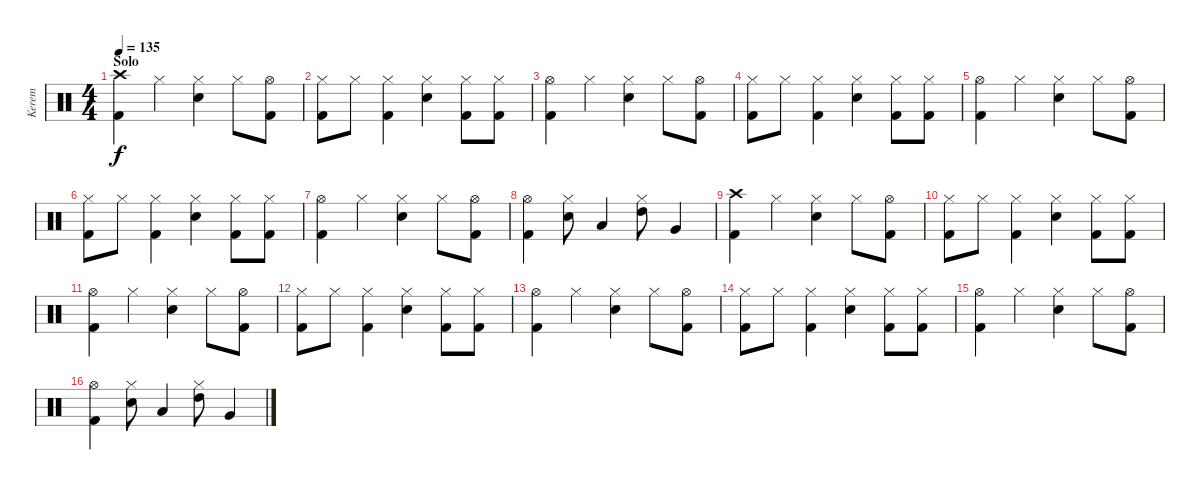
\track ("Kerem" "Kerem") {instrument percussion}
\staff {score}
\articulation defaults
\ts (4 4)
\section ("" "Solo")
\tempo 135
\clef neutral
\ks c
("Crash high (hit)" "Kick (hit) 2").4{dy f} "Hi-Hat (closed)".4 ("Electric Snare (hit)" "Hi-Hat (closed)").4 "Hi-Hat (closed)".8 ("Hi-Hat (open)" "Kick (hit) 2").8 |
("Hi-Hat (closed)" "Kick (hit) 2").8 "Hi-Hat (closed)".8 ("Hi-Hat (closed)" "Kick (hit) 2").4 ("Electric Snare (hit)" "Hi-Hat (closed)").4 ("Hi-Hat (closed)" "Kick (hit) 2").8 ("Hi-Hat (closed)" "Kick (hit) 2").8 |
("Hi-Hat (open)" "Kick (hit) 2").4 "Hi-Hat (closed)".4 ("Electric Snare (hit)" "Hi-Hat (closed)").4 "Hi-Hat (closed)".8 ("Hi-Hat (open)" "Kick (hit) 2").8 |
("Hi-Hat (closed)" "Kick (hit) 2").8 "Hi-Hat (closed)".8 ("Hi-Hat (closed)" "Kick (hit) 2").4 ("Electric Snare (hit)" "Hi-Hat (closed)").4 ("Hi-Hat (closed)" "Kick (hit) 2").8 ("Hi-Hat (closed)" "Kick (hit) 2").8 |
("Hi-Hat (open)" "Kick (hit) 2").4 "Hi-Hat (closed)".4 ("Electric Snare (hit)" "Hi-Hat (closed)").4 "Hi-Hat (closed)".8 ("Hi-Hat (open)" "Kick (hit) 2").8 |
("Hi-Hat (closed)" "Kick (hit) 2").8 "Hi-Hat (closed)".8 ("Hi-Hat (closed)" "Kick (hit) 2").4 ("Electric Snare (hit)" "Hi-Hat (closed)").4 ("Hi-Hat (closed)" "Kick (hit) 2").8 ("Hi-Hat (closed)" "Kick (hit) 2").8 |
("Hi-Hat (open)" "Kick (hit) 2").4 "Hi-Hat (closed)".4 ("Electric Snare (hit)" "Hi-Hat (closed)").4 "Hi-Hat (closed)".8 ("Hi-Hat (open)" "Kick (hit) 2").8 |
("Kick (hit) 2" "Hi-Hat (open)").4 ("Electric Snare (hit)" "Hi-Hat (closed)").8 "Low Tom (hit)".4 ("High Tom (hit)" "Hi-Hat (closed)").8 "Very Low Tom (hit)".4 |
("Crash high (hit)" "Kick (hit) 2").4 "Hi-Hat (closed)".4 ("Electric Snare (hit)" "Hi-Hat (closed)").4 "Hi-Hat (closed)".8 ("Hi-Hat (open)" "Kick (hit) 2").8 |
("Hi-Hat (closed)" "Kick (hit) 2").8 "Hi-Hat (closed)".8 ("Hi-Hat (closed)" "Kick (hit) 2").4 ("Electric Snare (hit)" "Hi-Hat (closed)").4 ("Hi-Hat (closed)" "Kick (hit) 2").8 ("Hi-Hat (closed)" "Kick (hit) 2").8 |
("Hi-Hat (open)" "Kick (hit) 2").4 "Hi-Hat (closed)".4 ("Electric Snare (hit)" "Hi-Hat (closed)").4 "Hi-Hat (closed)".8 ("Hi-Hat (open)" "Kick (hit) 2").8 |
("Hi-Hat (closed)" "Kick (hit) 2").8 "Hi-Hat (closed)".8 ("Hi-Hat (closed)" "Kick (hit) 2").4 ("Electric Snare (hit)" "Hi-Hat (closed)").4 ("Hi-Hat (closed)" "Kick (hit) 2").8 ("Hi-Hat (closed)" "Kick (hit) 2").8 |
("Hi-Hat (open)" "Kick (hit) 2").4 "Hi-Hat (closed)".4 ("Electric Snare (hit)" "Hi-Hat (closed)").4 "Hi-Hat (closed)".8 ("Hi-Hat (open)" "Kick (hit) 2").8 |
("Hi-Hat (closed)" "Kick (hit) 2").8 "Hi-Hat (closed)".8 ("Hi-Hat (closed)" "Kick (hit) 2").4 ("Electric Snare (hit)" "Hi-Hat (closed)").4 ("Hi-Hat (closed)" "Kick (hit) 2").8 ("Hi-Hat (closed)" "Kick (hit) 2").8 |
("Hi-Hat (open)" "Kick (hit) 2").4 "Hi-Hat (closed)".4 ("Electric Snare (hit)" "Hi-Hat (closed)").4 "Hi-Hat (closed)".8 ("Hi-Hat (open)" "Kick (hit) 2").8 |
("Kick (hit) 2" "Hi-Hat (open)").4 ("Electric Snare (hit)" "Hi-Hat (closed)").8 "Low Tom (hit)".4 ("High Tom (hit)" "Hi-Hat (closed)").8 "Very Low Tom (hit)".4
